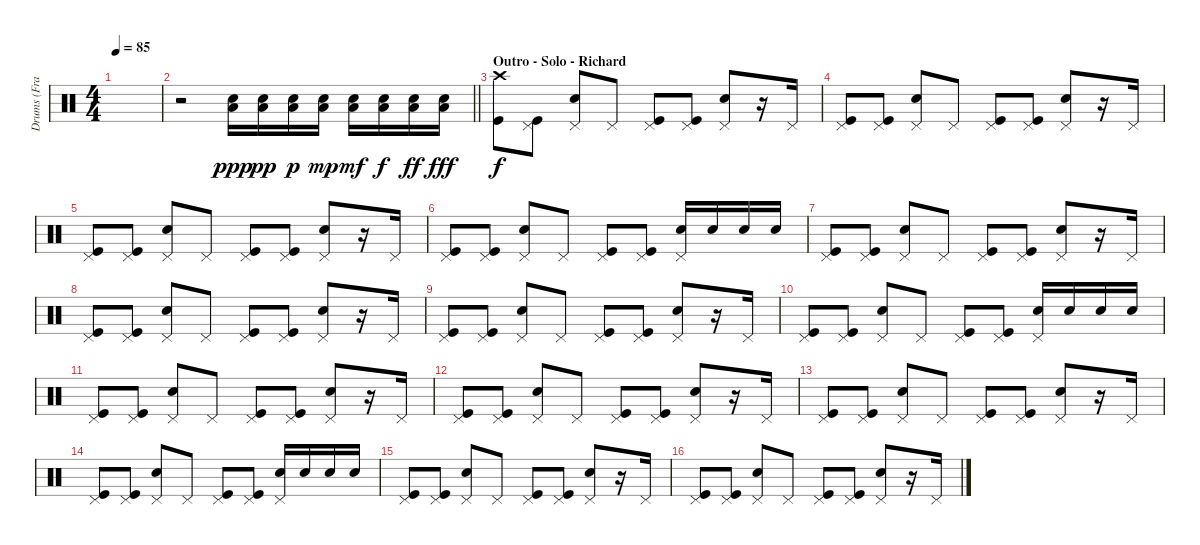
\track ("Drums (Frank Ferrer)" "Drums (Fra") {instrument percussion}
\staff {score}
\articulation defaults
\ts (4 4)
\tempo 85
\clef neutral
\ks c
|
\barLineRight lightlight
r.2 ("Low Floor Tom (hit)" "Electric Snare (hit)").16{dy ppp} ("Low Floor Tom (hit)" "Electric Snare (hit)").16{dy pp} ("Low Floor Tom (hit)" "Electric Snare (hit)").16{dy p} ("Low Floor Tom (hit)" "Electric Snare (hit)").16{dy mp} ("Low Floor Tom (hit)" "Electric Snare (hit)").16{dy mf} ("Low Floor Tom (hit)" "Electric Snare (hit)").16{dy f} ("Low Floor Tom (hit)" "Electric Snare (hit)").16{dy ff} ("Low Floor Tom (hit)" "Electric Snare (hit)").16{dy fff} |
\section ("" "Outro - Solo - Richard")
("Kick (hit)" "Crash high (hit)").8{dy f} ("Kick (hit)" "Pedal Hi-Hat (hit)").8 ("Snare (hit) 2" "Pedal Hi-Hat (hit)").8 "Pedal Hi-Hat (hit)".8 ("Kick (hit)" "Pedal Hi-Hat (hit)").8 ("Kick (hit)" "Pedal Hi-Hat (hit)").8 ("Snare (hit) 2" "Pedal Hi-Hat (hit)").8 r.16 "Pedal Hi-Hat (hit)".16 |
("Kick (hit)" "Pedal Hi-Hat (hit)").8 ("Kick (hit)" "Pedal Hi-Hat (hit)").8 ("Snare (hit) 2" "Pedal Hi-Hat (hit)").8 "Pedal Hi-Hat (hit)".8 ("Kick (hit)" "Pedal Hi-Hat (hit)").8 ("Kick (hit)" "Pedal Hi-Hat (hit)").8 ("Snare (hit) 2" "Pedal Hi-Hat (hit)").8 r.16 "Pedal Hi-Hat (hit)".16 |
("Kick (hit)" "Pedal Hi-Hat (hit)").8 ("Kick (hit)" "Pedal Hi-Hat (hit)").8 ("Snare (hit) 2" "Pedal Hi-Hat (hit)").8 "Pedal Hi-Hat (hit)".8 ("Kick (hit)" "Pedal Hi-Hat (hit)").8 ("Kick (hit)" "Pedal Hi-Hat (hit)").8 ("Snare (hit) 2" "Pedal Hi-Hat (hit)").8 r.16 "Pedal Hi-Hat (hit)".16 |
("Kick (hit)" "Pedal Hi-Hat (hit)").8 ("Kick (hit)" "Pedal Hi-Hat (hit)").8 ("Snare (hit) 2" "Pedal Hi-Hat (hit)").8 "Pedal Hi-Hat (hit)".8 ("Kick (hit)" "Pedal Hi-Hat (hit)").8 ("Kick (hit)" "Pedal Hi-Hat (hit)").8 ("Snare (hit) 2" "Pedal Hi-Hat (hit)").16 "Snare (hit) 2".16 "Snare (hit) 2".16 "Snare (hit) 2".16 |
("Kick (hit)" "Pedal Hi-Hat (hit)").8 ("Kick (hit)" "Pedal Hi-Hat (hit)").8 ("Snare (hit) 2" "Pedal Hi-Hat (hit)").8 "Pedal Hi-Hat (hit)".8 ("Kick (hit)" "Pedal Hi-Hat (hit)").8 ("Kick (hit)" "Pedal Hi-Hat (hit)").8 ("Snare (hit) 2" "Pedal Hi-Hat (hit)").8 r.16 "Pedal Hi-Hat (hit)".16 |
("Kick (hit)" "Pedal Hi-Hat (hit)").8 ("Kick (hit)" "Pedal Hi-Hat (hit)").8 ("Snare (hit) 2" "Pedal Hi-Hat (hit)").8 "Pedal Hi-Hat (hit)".8 ("Kick (hit)" "Pedal Hi-Hat (hit)").8 ("Kick (hit)" "Pedal Hi-Hat (hit)").8 ("Snare (hit) 2" "Pedal Hi-Hat (hit)").8 r.16 "Pedal Hi-Hat (hit)".16 |
("Kick (hit)" "Pedal Hi-Hat (hit)").8 ("Kick (hit)" "Pedal Hi-Hat (hit)").8 ("Snare (hit) 2" "Pedal Hi-Hat (hit)").8 "Pedal Hi-Hat (hit)".8 ("Kick (hit)" "Pedal Hi-Hat (hit)").8 ("Kick (hit)" "Pedal Hi-Hat (hit)").8 ("Snare (hit) 2" "Pedal Hi-Hat (hit)").8 r.16 "Pedal Hi-Hat (hit)".16 |
("Kick (hit)" "Pedal Hi-Hat (hit)").8 ("Kick (hit)" "Pedal Hi-Hat (hit)").8 ("Snare (hit) 2" "Pedal Hi-Hat (hit)").8 "Pedal Hi-Hat (hit)".8 ("Kick (hit)" "Pedal Hi-Hat (hit)").8 ("Kick (hit)" "Pedal Hi-Hat (hit)").8 ("Snare (hit) 2" "Pedal Hi-Hat (hit)").16 "Snare (hit) 2".16 "Snare (hit) 2".16 "Snare (hit) 2".16 |
("Kick (hit)" "Pedal Hi-Hat (hit)").8 ("Kick (hit)" "Pedal Hi-Hat (hit)").8 ("Snare (hit) 2" "Pedal Hi-Hat (hit)").8 "Pedal Hi-Hat (hit)".8 ("Kick (hit)" "Pedal Hi-Hat (hit)").8 ("Kick (hit)" "Pedal Hi-Hat (hit)").8 ("Snare (hit) 2" "Pedal Hi-Hat (hit)").8 r.16 "Pedal Hi-Hat (hit)".16 |
("Kick (hit)" "Pedal Hi-Hat (hit)").8 ("Kick (hit)" "Pedal Hi-Hat (hit)").8 ("Snare (hit) 2" "Pedal Hi-Hat (hit)").8 "Pedal Hi-Hat (hit)".8 ("Kick (hit)" "Pedal Hi-Hat (hit)").8 ("Kick (hit)" "Pedal Hi-Hat (hit)").8 ("Snare (hit) 2" "Pedal Hi-Hat (hit)").8 r.16 "Pedal Hi-Hat (hit)".16 |
("Kick (hit)" "Pedal Hi-Hat (hit)").8 ("Kick (hit)" "Pedal Hi-Hat (hit)").8 ("Snare (hit) 2" "Pedal Hi-Hat (hit)").8 "Pedal Hi-Hat (hit)".8 ("Kick (hit)" "Pedal Hi-Hat (hit)").8 ("Kick (hit)" "Pedal Hi-Hat (hit)").8 ("Snare (hit) 2" "Pedal Hi-Hat (hit)").8 r.16 "Pedal Hi-Hat (hit)".16 |
("Kick (hit)" "Pedal Hi-Hat (hit)").8 ("Kick (hit)" "Pedal Hi-Hat (hit)").8 ("Snare (hit) 2" "Pedal Hi-Hat (hit)").8 "Pedal Hi-Hat (hit)".8 ("Kick (hit)" "Pedal Hi-Hat (hit)").8 ("Kick (hit)" "Pedal Hi-Hat (hit)").8 ("Snare (hit) 2" "Pedal Hi-Hat (hit)").16 "Snare (hit) 2".16 "Snare (hit) 2".16 "Snare (hit) 2".16 |
("Kick (hit)" "Pedal Hi-Hat (hit)").8 ("Kick (hit)" "Pedal Hi-Hat (hit)").8 ("Snare (hit) 2" "Pedal Hi-Hat (hit)").8 "Pedal Hi-Hat (hit)".8 ("Kick (hit)" "Pedal Hi-Hat (hit)").8 ("Kick (hit)" "Pedal Hi-Hat (hit)").8 ("Snare (hit) 2" "Pedal Hi-Hat (hit)").8 r.16 "Pedal Hi-Hat (hit)".16 |
("Kick (hit)" "Pedal Hi-Hat (hit)").8 ("Kick (hit)" "Pedal Hi-Hat (hit)").8 ("Snare (hit) 2" "Pedal Hi-Hat (hit)").8 "Pedal Hi-Hat (hit)".8 ("Kick (hit)" "Pedal Hi-Hat (hit)").8 ("Kick (hit)" "Pedal Hi-Hat (hit)").8 ("Snare (hit) 2" "Pedal Hi-Hat (hit)").8 r.16 "Pedal Hi-Hat (hit)".16
